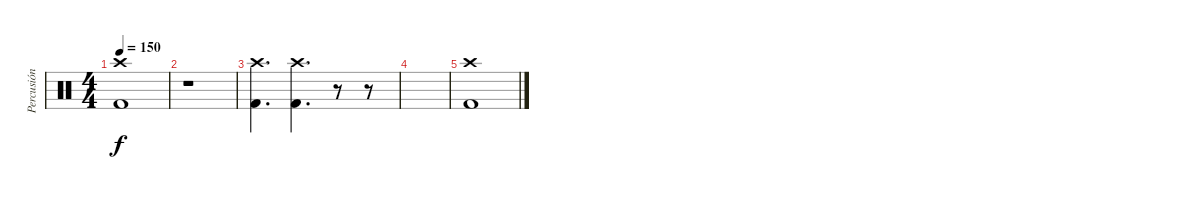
\track ("Percusión" "Percusión") {instrument percussion}
\staff {score}
\articulation defaults
\ts (4 4)
\tempo 150
\clef neutral
\ks c
("Kick (hit) 2" "Crash high (hit)").1{dy f} |
r.1 |
("Kick (hit) 2" "Crash high (hit)").4{d} ("Kick (hit) 2" "Crash high (hit)").4{d} r.8 r.8 |
|
("Kick (hit) 2" "Crash high (hit)").1
